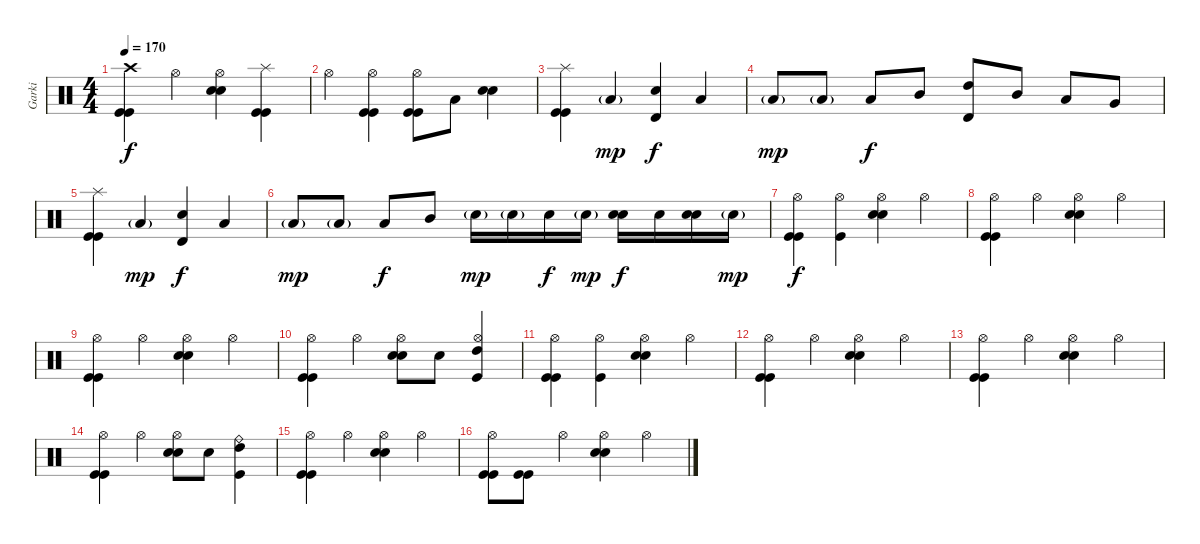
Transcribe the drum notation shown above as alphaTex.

\track ("Garki" "Garki") {instrument percussion}
\staff {score}
\articulation defaults
\ts (4 4)
\tempo 170
\clef neutral
\ks c
("Kick (hit)" "Kick (hit)" "Crash high (hit)").4{dy f} "Hi-Hat (open)".4 ("Electric Snare (hit)" "Electric Snare (hit)" "Hi-Hat (open)").4 ("Kick (hit)" "Kick (hit)" "Splash (hit)").4 |
"Hi-Hat (open)".4 ("Kick (hit)" "Kick (hit)" "Hi-Hat (open)").4 ("Kick (hit)" "Kick (hit)" "Hi-Hat (open)").8 "Low Tom (hit)".8 ("Electric Snare (hit)" "Electric Snare (hit)").4 |
("Kick (hit)" "Kick (hit)" "Splash (hit)").4 "Low Tom (hit)"{g}.4{dy mp} ("Electric Snare (hit)" "Timbale high (hit)").4{dy f} "Low Tom (hit)".4 |
"Low Tom (hit)"{g}.8{dy mp} "Low Tom (hit)"{g}.8 "Low Tom (hit)".8{dy f} "Mid Tom (hit)".8 ("High Tom (hit)" "Timbale high (hit)").8 "Mid Tom (hit)".8 "Low Tom (hit)".8 "Very Low Tom (hit)".8 |
("Kick (hit)" "Kick (hit)" "Splash (hit)").4 "Low Tom (hit)"{g}.4{dy mp} ("Electric Snare (hit)" "Timbale high (hit)").4{dy f} "Low Tom (hit)".4 |
"Low Tom (hit)"{g}.8{dy mp} "Low Tom (hit)"{g}.8 "Low Tom (hit)".8{dy f} "Mid Tom (hit)".8 "Electric Snare (hit)"{g}.16{dy mp} "Electric Snare (hit)"{g}.16 "Electric Snare (hit)".16{dy f} "Electric Snare (hit)"{g}.16{dy mp} ("Electric Snare (hit)" "Electric Snare (hit)").16{dy f} "Electric Snare (hit)".16 ("Electric Snare (hit)" "Electric Snare (hit)").16 "Electric Snare (hit)"{g}.16{dy mp} |
("Kick (hit)" "Kick (hit)" "Hi-Hat (open)").4{dy f} ("Kick (hit)" "Hi-Hat (open)").4 ("Electric Snare (hit)" "Electric Snare (hit)" "Hi-Hat (open)").4 "Hi-Hat (open)".4 |
("Kick (hit)" "Kick (hit)" "Hi-Hat (open)").4 "Hi-Hat (open)".4 ("Electric Snare (hit)" "Electric Snare (hit)" "Hi-Hat (open)").4 "Hi-Hat (open)".4 |
("Kick (hit)" "Kick (hit)" "Hi-Hat (open)").4 "Hi-Hat (open)".4 ("Electric Snare (hit)" "Electric Snare (hit)" "Hi-Hat (open)").4 "Hi-Hat (open)".4 |
("Kick (hit)" "Kick (hit)" "Hi-Hat (open)").4 "Hi-Hat (open)".4 ("Electric Snare (hit)" "Electric Snare (hit)" "Hi-Hat (open)").8 "Electric Snare (hit)".8 ("Kick (hit)" "High Tom (hit)" "Hi-Hat (open)").4 |
("Kick (hit)" "Kick (hit)" "Hi-Hat (open)").4 ("Kick (hit)" "Hi-Hat (open)").4 ("Electric Snare (hit)" "Electric Snare (hit)" "Hi-Hat (open)").4 "Hi-Hat (open)".4 |
("Kick (hit)" "Kick (hit)" "Hi-Hat (open)").4 "Hi-Hat (open)".4 ("Electric Snare (hit)" "Electric Snare (hit)" "Hi-Hat (open)").4 "Hi-Hat (open)".4 |
("Kick (hit)" "Kick (hit)" "Hi-Hat (open)").4 "Hi-Hat (open)".4 ("Electric Snare (hit)" "Electric Snare (hit)" "Hi-Hat (open)").4 "Hi-Hat (open)".4 |
("Kick (hit)" "Kick (hit)" "Hi-Hat (open)").4 "Hi-Hat (open)".4 ("Electric Snare (hit)" "Electric Snare (hit)" "Hi-Hat (open)").8 "Electric Snare (hit)".8 ("Kick (hit)" "High Tom (hit)" "Ride (bell)").4 |
("Kick (hit)" "Kick (hit)" "Hi-Hat (open)").4 "Hi-Hat (open)".4 ("Electric Snare (hit)" "Electric Snare (hit)" "Hi-Hat (open)").4 "Hi-Hat (open)".4 |
("Kick (hit)" "Kick (hit)" "Hi-Hat (open)").8 ("Kick (hit)" "Kick (hit)").8 "Hi-Hat (open)".4 ("Electric Snare (hit)" "Electric Snare (hit)" "Hi-Hat (open)").4 "Hi-Hat (open)".4
